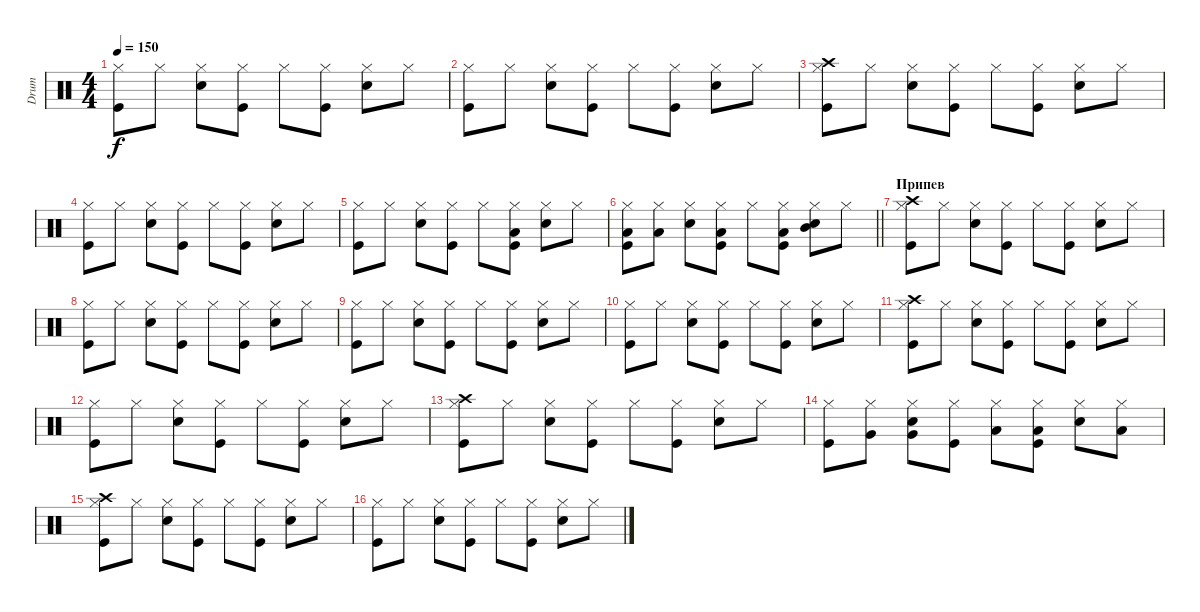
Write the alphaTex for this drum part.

\track ("Drum" "Drum") {instrument percussion}
\staff {score}
\articulation defaults
\ts (4 4)
\tempo 150
\clef neutral
\ks c
("Kick (hit)" "Hi-Hat (closed)").8{dy f} "Hi-Hat (closed)".8 ("Snare (hit) 2" "Hi-Hat (closed)").8 ("Kick (hit)" "Hi-Hat (closed)").8 "Hi-Hat (closed)".8 ("Kick (hit)" "Hi-Hat (closed)").8 ("Snare (hit) 2" "Hi-Hat (closed)").8 "Hi-Hat (closed)".8 |
("Kick (hit)" "Hi-Hat (closed)").8 "Hi-Hat (closed)".8 ("Snare (hit) 2" "Hi-Hat (closed)").8 ("Kick (hit)" "Hi-Hat (closed)").8 "Hi-Hat (closed)".8 ("Kick (hit)" "Hi-Hat (closed)").8 ("Snare (hit) 2" "Hi-Hat (closed)").8 "Hi-Hat (closed)".8 |
("Kick (hit)" "Hi-Hat (closed)" "Crash high (hit)").8 "Hi-Hat (closed)".8 ("Snare (hit) 2" "Hi-Hat (closed)").8 ("Kick (hit)" "Hi-Hat (closed)").8 "Hi-Hat (closed)".8 ("Kick (hit)" "Hi-Hat (closed)").8 ("Snare (hit) 2" "Hi-Hat (closed)").8 "Hi-Hat (closed)".8 |
("Kick (hit)" "Hi-Hat (closed)").8 "Hi-Hat (closed)".8 ("Snare (hit) 2" "Hi-Hat (closed)").8 ("Kick (hit)" "Hi-Hat (closed)").8 "Hi-Hat (closed)".8 ("Kick (hit)" "Hi-Hat (closed)").8 ("Snare (hit) 2" "Hi-Hat (closed)").8 "Hi-Hat (closed)".8 |
("Kick (hit)" "Hi-Hat (closed)").8 "Hi-Hat (closed)".8 ("Snare (hit) 2" "Hi-Hat (closed)").8 ("Kick (hit)" "Hi-Hat (closed)").8 "Hi-Hat (closed)".8 ("Kick (hit)" "Hi-Hat (closed)" "Low Tom (hit)").8 ("Snare (hit) 2" "Hi-Hat (closed)").8 "Hi-Hat (closed)".8 |
\barLineRight lightlight
("Kick (hit)" "Hi-Hat (closed)" "Low Tom (hit)").8 ("Hi-Hat (closed)" "Low Tom (hit)").8 ("Snare (hit) 2" "Hi-Hat (closed)").8 ("Kick (hit)" "Hi-Hat (closed)" "Low Tom (hit)").8 "Hi-Hat (closed)".8 ("Kick (hit)" "Hi-Hat (closed)" "Low Tom (hit)").8 ("Snare (hit) 2" "Hi-Hat (closed)" "Mid Tom (hit)").8 "Hi-Hat (closed)".8 |
\section ("" "Припев")
("Kick (hit)" "Hi-Hat (closed)" "Crash high (hit)").8 "Hi-Hat (closed)".8 ("Snare (hit) 2" "Hi-Hat (closed)").8 ("Kick (hit)" "Hi-Hat (closed)").8 "Hi-Hat (closed)".8 ("Kick (hit)" "Hi-Hat (closed)").8 ("Snare (hit) 2" "Hi-Hat (closed)").8 "Hi-Hat (closed)".8 |
("Kick (hit)" "Hi-Hat (closed)").8 "Hi-Hat (closed)".8 ("Snare (hit) 2" "Hi-Hat (closed)").8 ("Kick (hit)" "Hi-Hat (closed)").8 "Hi-Hat (closed)".8 ("Kick (hit)" "Hi-Hat (closed)").8 ("Snare (hit) 2" "Hi-Hat (closed)").8 "Hi-Hat (closed)".8 |
("Kick (hit)" "Hi-Hat (closed)").8 "Hi-Hat (closed)".8 ("Snare (hit) 2" "Hi-Hat (closed)").8 ("Kick (hit)" "Hi-Hat (closed)").8 "Hi-Hat (closed)".8 ("Kick (hit)" "Hi-Hat (closed)").8 ("Snare (hit) 2" "Hi-Hat (closed)").8 "Hi-Hat (closed)".8 |
("Kick (hit)" "Hi-Hat (closed)").8 "Hi-Hat (closed)".8 ("Snare (hit) 2" "Hi-Hat (closed)").8 ("Kick (hit)" "Hi-Hat (closed)").8 "Hi-Hat (closed)".8 ("Kick (hit)" "Hi-Hat (closed)").8 ("Snare (hit) 2" "Hi-Hat (closed)").8 "Hi-Hat (closed)".8 |
("Kick (hit)" "Hi-Hat (closed)" "Crash high (hit)").8 "Hi-Hat (closed)".8 ("Snare (hit) 2" "Hi-Hat (closed)").8 ("Kick (hit)" "Hi-Hat (closed)").8 "Hi-Hat (closed)".8 ("Kick (hit)" "Hi-Hat (closed)").8 ("Snare (hit) 2" "Hi-Hat (closed)").8 "Hi-Hat (closed)".8 |
("Kick (hit)" "Hi-Hat (closed)").8 "Hi-Hat (closed)".8 ("Snare (hit) 2" "Hi-Hat (closed)").8 ("Kick (hit)" "Hi-Hat (closed)").8 "Hi-Hat (closed)".8 ("Kick (hit)" "Hi-Hat (closed)").8 ("Snare (hit) 2" "Hi-Hat (closed)").8 "Hi-Hat (closed)".8 |
("Kick (hit)" "Hi-Hat (closed)" "Crash high (hit)").8 "Hi-Hat (closed)".8 ("Snare (hit) 2" "Hi-Hat (closed)").8 ("Kick (hit)" "Hi-Hat (closed)").8 "Hi-Hat (closed)".8 ("Kick (hit)" "Hi-Hat (closed)").8 ("Snare (hit) 2" "Hi-Hat (closed)").8 "Hi-Hat (closed)".8 |
("Kick (hit)" "Hi-Hat (closed)").8 ("Hi-Hat (closed)" "Very Low Tom (hit)").8 ("Snare (hit) 2" "Hi-Hat (closed)" "Very Low Tom (hit)").8 ("Kick (hit)" "Hi-Hat (closed)").8 ("Hi-Hat (closed)" "Low Floor Tom (hit)").8 ("Kick (hit)" "Hi-Hat (closed)" "Low Floor Tom (hit)").8 ("Snare (hit) 2" "Hi-Hat (closed)").8 ("Hi-Hat (closed)" "Low Floor Tom (hit)").8 |
("Kick (hit)" "Hi-Hat (closed)" "Crash high (hit)").8 "Hi-Hat (closed)".8 ("Snare (hit) 2" "Hi-Hat (closed)").8 ("Kick (hit)" "Hi-Hat (closed)").8 "Hi-Hat (closed)".8 ("Kick (hit)" "Hi-Hat (closed)").8 ("Snare (hit) 2" "Hi-Hat (closed)").8 "Hi-Hat (closed)".8 |
("Kick (hit)" "Hi-Hat (closed)").8 "Hi-Hat (closed)".8 ("Snare (hit) 2" "Hi-Hat (closed)").8 ("Kick (hit)" "Hi-Hat (closed)").8 "Hi-Hat (closed)".8 ("Kick (hit)" "Hi-Hat (closed)").8 ("Snare (hit) 2" "Hi-Hat (closed)").8 "Hi-Hat (closed)".8
